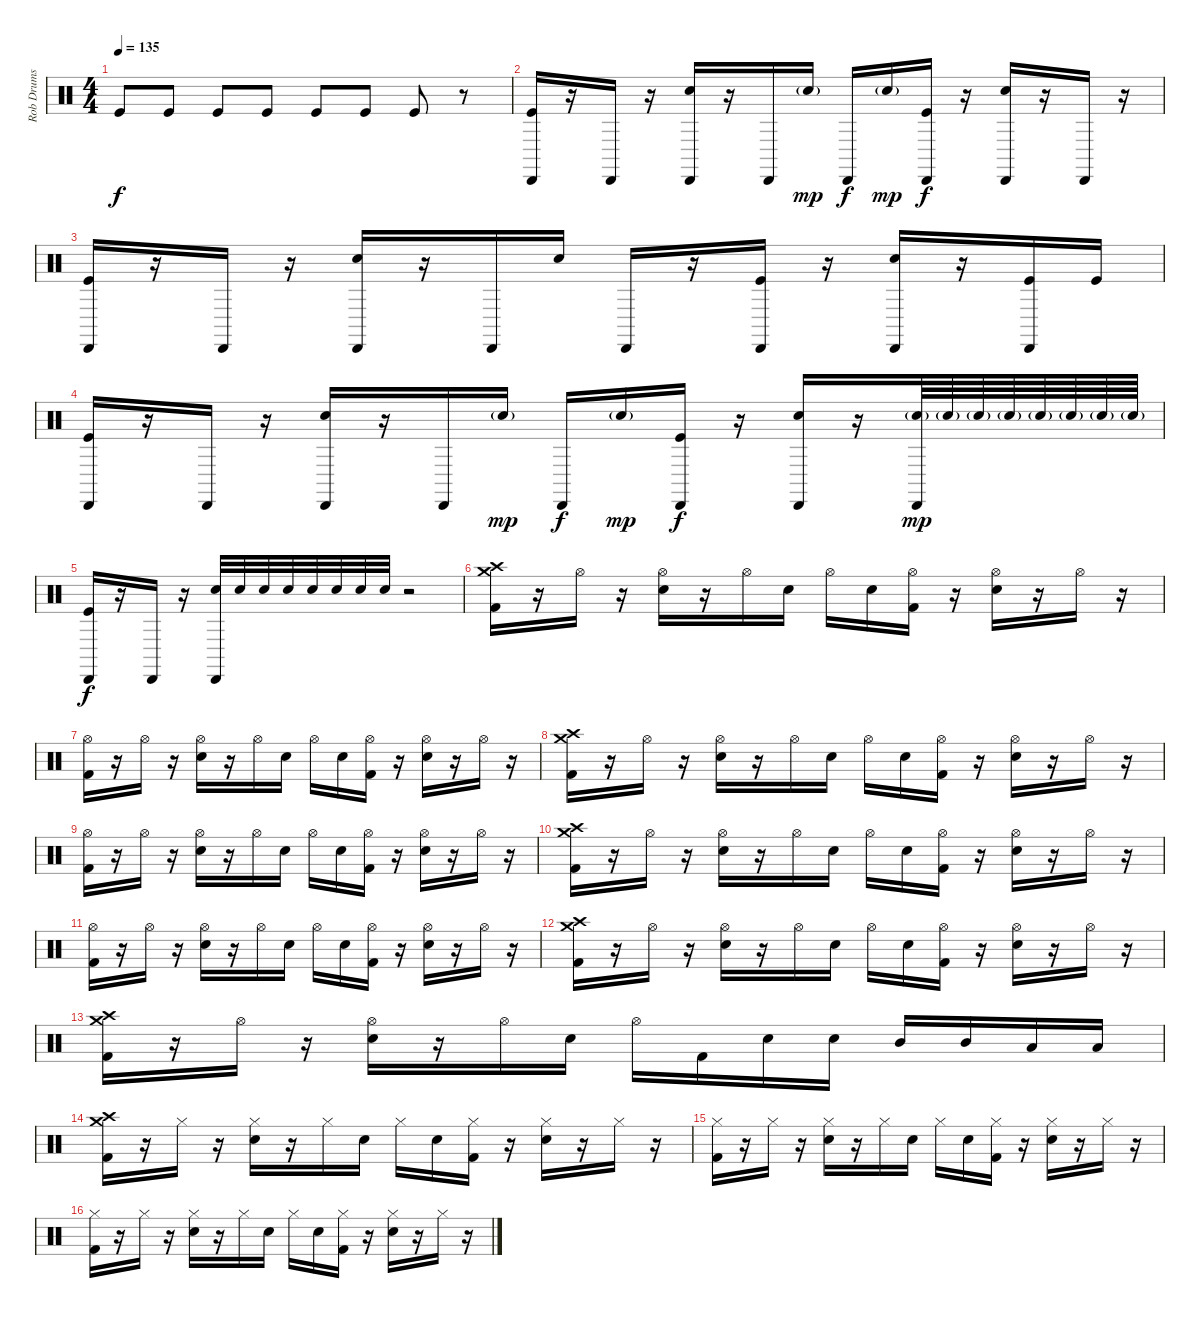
\track ("Rob Drums" "Rob Drums") {instrument percussion}
\staff {score}
\articulation defaults
\ts (4 4)
\tempo 135
\clef neutral
\ks c "Kick (hit)".8{dy f volume 10} "Kick (hit)".8 "Kick (hit)".8 "Kick (hit)".8 "Kick (hit)".8{volume 13} "Kick (hit)".8 "Kick (hit)".8
r.8 |
("Cabasa (hit)" "Kick (hit)").16 r.16 "Cabasa (hit)".16 r.16 ("Cabasa (hit)" "Hand Clap (hit)").16 r.16 "Cabasa (hit)".16 "Hand Clap (hit)"{g}.16{dy mp} "Cabasa (hit)".16{dy f} "Hand Clap (hit)"{g}.16{dy mp} ("Cabasa (hit)" "Kick (hit)").16{dy f} r.16 ("Cabasa (hit)" "Hand Clap (hit)").16 r.16 "Cabasa (hit)".16 r.16 |
("Cabasa (hit)" "Kick (hit)").16 r.16 "Cabasa (hit)".16 r.16 ("Cabasa (hit)" "Hand Clap (hit)").16 r.16 "Cabasa (hit)".16 "Hand Clap (hit)".16 "Cabasa (hit)".16 r.16 ("Cabasa (hit)" "Kick (hit)").16 r.16 ("Cabasa (hit)" "Hand Clap (hit)").16 r.16 ("Cabasa (hit)" "Kick (hit)").16 "Kick (hit)".16 |
("Cabasa (hit)" "Kick (hit)").16 r.16 "Cabasa (hit)".16 r.16 ("Cabasa (hit)" "Hand Clap (hit)").16 r.16 "Cabasa (hit)".16 "Hand Clap (hit)"{g}.16{dy mp} "Cabasa (hit)".16{dy f} "Hand Clap (hit)"{g}.16{dy mp} ("Cabasa (hit)" "Kick (hit)").16{dy f} r.16 ("Cabasa (hit)" "Hand Clap (hit)").16 r.16 ("Cabasa (hit)" "Hand Clap (hit)"{g}).64{dy mp} "Hand Clap (hit)"{g}.64 "Hand Clap (hit)"{g}.64 "Hand Clap (hit)"{g}.64 "Hand Clap (hit)"{g}.64 "Hand Clap (hit)"{g}.64 "Hand Clap (hit)"{g}.64 "Hand Clap (hit)"{g}.64 |
("Cabasa (hit)" "Kick (hit)").16{dy f} r.16 "Cabasa (hit)".16 r.16 ("Cabasa (hit)" "Hand Clap (hit)").32 "Hand Clap (hit)".32 "Hand Clap (hit)".32 "Hand Clap (hit)".32 "Hand Clap (hit)".32 "Hand Clap (hit)".32 "Hand Clap (hit)".32 "Hand Clap (hit)".32 r.2 |
("Crash high (hit)" "Crash medium (hit)" "Kick (hit) 2").16 r.16 "Hi-Hat (open)".16 r.16 ("Hi-Hat (open)" "Electric Snare (hit)").16 r.16 "Hi-Hat (open)".16 "Electric Snare (hit)".16 "Hi-Hat (open)".16 "Electric Snare (hit)".16 ("Hi-Hat (open)" "Kick (hit) 2").16 r.16 ("Hi-Hat (open)" "Electric Snare (hit)").16 r.16 "Hi-Hat (open)".16 r.16 |
("Hi-Hat (open)" "Kick (hit) 2").16 r.16 "Hi-Hat (open)".16 r.16 ("Hi-Hat (open)" "Electric Snare (hit)").16 r.16 "Hi-Hat (open)".16 "Electric Snare (hit)".16 "Hi-Hat (open)".16 "Electric Snare (hit)".16 ("Hi-Hat (open)" "Kick (hit) 2").16 r.16 ("Hi-Hat (open)" "Electric Snare (hit)").16 r.16 "Hi-Hat (open)".16 r.16 |
("Crash high (hit)" "Crash medium (hit)" "Kick (hit) 2").16 r.16 "Hi-Hat (open)".16 r.16 ("Hi-Hat (open)" "Electric Snare (hit)").16 r.16 "Hi-Hat (open)".16 "Electric Snare (hit)".16 "Hi-Hat (open)".16 "Electric Snare (hit)".16 ("Hi-Hat (open)" "Kick (hit) 2").16 r.16 ("Hi-Hat (open)" "Electric Snare (hit)").16 r.16 "Hi-Hat (open)".16 r.16 |
("Hi-Hat (open)" "Kick (hit) 2").16 r.16 "Hi-Hat (open)".16 r.16 ("Hi-Hat (open)" "Electric Snare (hit)").16 r.16 "Hi-Hat (open)".16 "Electric Snare (hit)".16 "Hi-Hat (open)".16 "Electric Snare (hit)".16 ("Hi-Hat (open)" "Kick (hit) 2").16 r.16 ("Hi-Hat (open)" "Electric Snare (hit)").16 r.16 "Hi-Hat (open)".16 r.16 |
("Crash high (hit)" "Crash medium (hit)" "Kick (hit) 2").16 r.16 "Hi-Hat (open)".16 r.16 ("Hi-Hat (open)" "Electric Snare (hit)").16 r.16 "Hi-Hat (open)".16 "Electric Snare (hit)".16 "Hi-Hat (open)".16 "Electric Snare (hit)".16 ("Hi-Hat (open)" "Kick (hit) 2").16 r.16 ("Hi-Hat (open)" "Electric Snare (hit)").16 r.16 "Hi-Hat (open)".16 r.16 |
("Hi-Hat (open)" "Kick (hit) 2").16 r.16 "Hi-Hat (open)".16 r.16 ("Hi-Hat (open)" "Electric Snare (hit)").16 r.16 "Hi-Hat (open)".16 "Electric Snare (hit)".16 "Hi-Hat (open)".16 "Electric Snare (hit)".16 ("Hi-Hat (open)" "Kick (hit) 2").16 r.16 ("Hi-Hat (open)" "Electric Snare (hit)").16 r.16 "Hi-Hat (open)".16 r.16 |
("Crash high (hit)" "Crash medium (hit)" "Kick (hit) 2").16 r.16 "Hi-Hat (open)".16 r.16 ("Hi-Hat (open)" "Electric Snare (hit)").16 r.16 "Hi-Hat (open)".16 "Electric Snare (hit)".16 "Hi-Hat (open)".16 "Electric Snare (hit)".16 ("Hi-Hat (open)" "Kick (hit) 2").16 r.16 ("Hi-Hat (open)" "Electric Snare (hit)").16 r.16 "Hi-Hat (open)".16 r.16 |
("Crash high (hit)" "Crash medium (hit)" "Kick (hit) 2").16 r.16 "Hi-Hat (open)".16 r.16 ("Hi-Hat (open)" "Electric Snare (hit)").16 r.16 "Hi-Hat (open)".16 "Electric Snare (hit)".16 "Hi-Hat (open)".16 "Kick (hit) 2".16 "Electric Snare (hit)".16 "Electric Snare (hit)".16 "Mid Tom (hit)".16 "Mid Tom (hit)".16 "Low Tom (hit)".16 "Low Tom (hit)".16 |
("Crash high (hit)" "Crash medium (hit)" "Kick (hit) 2").16 r.16 "Hi-Hat (closed)".16 r.16 ("Hi-Hat (closed)" "Electric Snare (hit)").16 r.16 "Hi-Hat (closed)".16 "Electric Snare (hit)".16 "Hi-Hat (closed)".16 "Electric Snare (hit)".16 ("Hi-Hat (closed)" "Kick (hit) 2").16 r.16 ("Hi-Hat (closed)" "Electric Snare (hit)").16 r.16 "Hi-Hat (closed)".16 r.16 |
("Hi-Hat (closed)" "Kick (hit) 2").16 r.16 "Hi-Hat (closed)".16 r.16 ("Hi-Hat (closed)" "Electric Snare (hit)").16 r.16 "Hi-Hat (closed)".16 "Electric Snare (hit)".16 "Hi-Hat (closed)".16 "Electric Snare (hit)".16 ("Hi-Hat (closed)" "Kick (hit) 2").16 r.16 ("Hi-Hat (closed)" "Electric Snare (hit)").16 r.16 "Hi-Hat (closed)".16 r.16 |
("Hi-Hat (closed)" "Kick (hit) 2").16 r.16 "Hi-Hat (closed)".16 r.16 ("Hi-Hat (closed)" "Electric Snare (hit)").16 r.16 "Hi-Hat (closed)".16 "Electric Snare (hit)".16 "Hi-Hat (closed)".16 "Electric Snare (hit)".16 ("Hi-Hat (closed)" "Kick (hit) 2").16 r.16 ("Hi-Hat (closed)" "Electric Snare (hit)").16 r.16 "Hi-Hat (closed)".16 r.16
